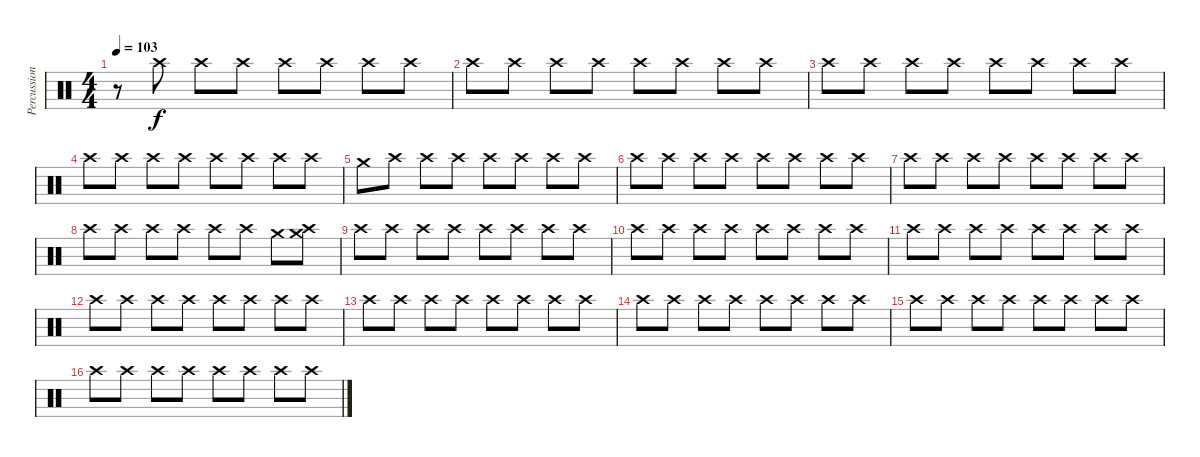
\track ("Percussion2" "Percussion") {instrument percussion}
\staff {score}
\articulation defaults
\ts (4 4)
\tempo 103
\clef neutral
\ks c
r.8{dy f} "Crash high (hit)".8 "Crash high (hit)".8 "Crash high (hit)".8 "Crash high (hit)".8 "Crash high (hit)".8 "Crash high (hit)".8 "Crash high (hit)".8 |
"Crash high (hit)".8 "Crash high (hit)".8 "Crash high (hit)".8 "Crash high (hit)".8 "Crash high (hit)".8 "Crash high (hit)".8 "Crash high (hit)".8 "Crash high (hit)".8 |
"Crash high (hit)".8 "Crash high (hit)".8 "Crash high (hit)".8 "Crash high (hit)".8 "Crash high (hit)".8 "Crash high (hit)".8 "Crash high (hit)".8 "Crash high (hit)".8 |
"Crash high (hit)".8 "Crash high (hit)".8 "Crash high (hit)".8 "Crash high (hit)".8 "Crash high (hit)".8 "Crash high (hit)".8 "Crash high (hit)".8 "Crash high (hit)".8 |
"Crash medium (hit)".8 "Crash high (hit)".8 "Crash high (hit)".8 "Crash high (hit)".8 "Crash high (hit)".8 "Crash high (hit)".8 "Crash high (hit)".8 "Crash high (hit)".8 |
"Crash high (hit)".8 "Crash high (hit)".8 "Crash high (hit)".8 "Crash high (hit)".8 "Crash high (hit)".8 "Crash high (hit)".8 "Crash high (hit)".8 "Crash high (hit)".8 |
"Crash high (hit)".8 "Crash high (hit)".8 "Crash high (hit)".8 "Crash high (hit)".8 "Crash high (hit)".8 "Crash high (hit)".8 "Crash high (hit)".8 "Crash high (hit)".8 |
"Crash high (hit)".8 "Crash high (hit)".8 "Crash high (hit)".8 "Crash high (hit)".8 "Crash high (hit)".8 "Crash high (hit)".8 "Crash medium (hit)".8 ("Crash high (hit)" "Crash medium (hit)").8 |
"Crash high (hit)".8 "Crash high (hit)".8 "Crash high (hit)".8 "Crash high (hit)".8 "Crash high (hit)".8 "Crash high (hit)".8 "Crash high (hit)".8 "Crash high (hit)".8 |
"Crash high (hit)".8 "Crash high (hit)".8 "Crash high (hit)".8 "Crash high (hit)".8 "Crash high (hit)".8 "Crash high (hit)".8 "Crash high (hit)".8 "Crash high (hit)".8 |
"Crash high (hit)".8 "Crash high (hit)".8 "Crash high (hit)".8 "Crash high (hit)".8 "Crash high (hit)".8 "Crash high (hit)".8 "Crash high (hit)".8 "Crash high (hit)".8 |
"Crash high (hit)".8 "Crash high (hit)".8 "Crash high (hit)".8 "Crash high (hit)".8 "Crash high (hit)".8 "Crash high (hit)".8 "Crash high (hit)".8 "Crash high (hit)".8 |
"Crash high (hit)".8 "Crash high (hit)".8 "Crash high (hit)".8 "Crash high (hit)".8 "Crash high (hit)".8 "Crash high (hit)".8 "Crash high (hit)".8 "Crash high (hit)".8 |
"Crash high (hit)".8 "Crash high (hit)".8 "Crash high (hit)".8 "Crash high (hit)".8 "Crash high (hit)".8 "Crash high (hit)".8 "Crash high (hit)".8 "Crash high (hit)".8 |
"Crash high (hit)".8 "Crash high (hit)".8 "Crash high (hit)".8 "Crash high (hit)".8 "Crash high (hit)".8 "Crash high (hit)".8 "Crash high (hit)".8 "Crash high (hit)".8 |
"Crash high (hit)".8 "Crash high (hit)".8 "Crash high (hit)".8 "Crash high (hit)".8 "Crash high (hit)".8 "Crash high (hit)".8 "Crash high (hit)".8 "Crash high (hit)".8
